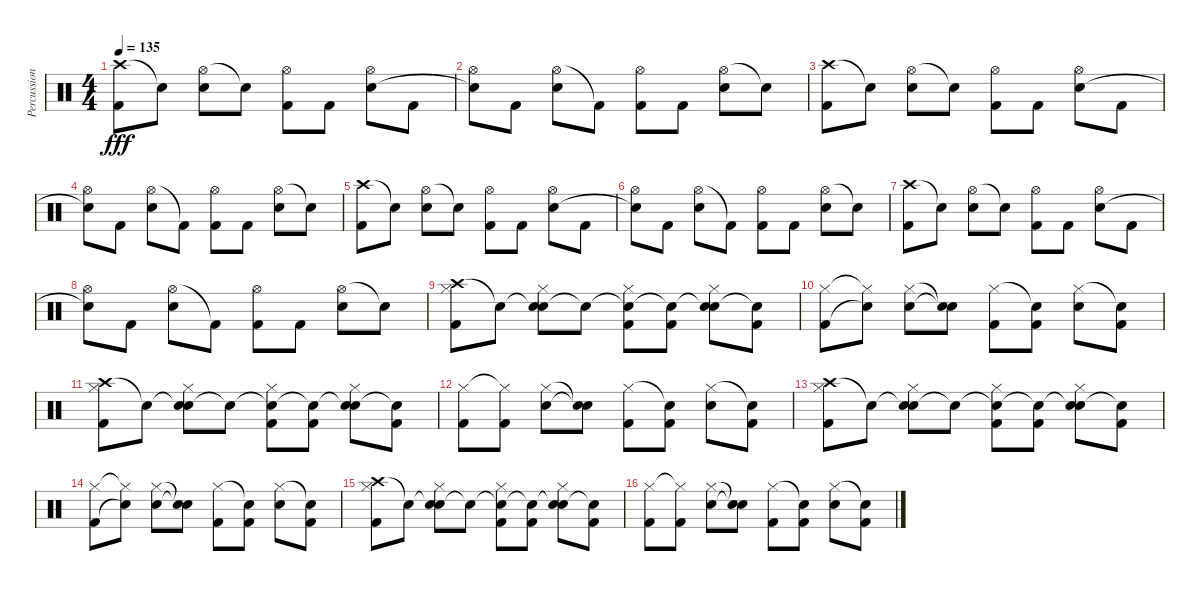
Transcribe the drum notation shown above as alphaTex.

\track ("Percussion" "Percussion") {instrument percussion}
\staff {score}
\articulation defaults
\ts (4 4)
\tempo 135
\clef neutral
\ks c
("Crash high (hit)" "Kick (hit) 2").8{dy fff} "Snare (hit)"{t}.8 ("Hi-Hat (open)" "Electric Snare (hit)").8 "Snare (hit)"{t}.8 ("Hi-Hat (open)" "Kick (hit) 2").8 "Kick (hit) 2".8 ("Hi-Hat (open)" "Electric Snare (hit)").8 "Kick (hit) 2".8 |
("Hi-Hat (open)" "Snare (hit)"{t}).8 "Kick (hit) 2".8 ("Hi-Hat (open)" "Electric Snare (hit)").8 "Kick (hit) 2"{t}.8 ("Hi-Hat (open)" "Kick (hit) 2").8 "Kick (hit) 2".8 ("Hi-Hat (open)" "Electric Snare (hit)").8 "Snare (hit)"{t}.8 |
("Crash high (hit)" "Kick (hit) 2").8 "Snare (hit)"{t}.8 ("Hi-Hat (open)" "Electric Snare (hit)").8 "Snare (hit)"{t}.8 ("Hi-Hat (open)" "Kick (hit) 2").8 "Kick (hit) 2".8 ("Hi-Hat (open)" "Electric Snare (hit)").8 "Kick (hit) 2".8 |
("Hi-Hat (open)" "Snare (hit)"{t}).8 "Kick (hit) 2".8 ("Hi-Hat (open)" "Electric Snare (hit)").8 "Kick (hit) 2"{t}.8 ("Hi-Hat (open)" "Kick (hit) 2").8 "Kick (hit) 2".8 ("Hi-Hat (open)" "Electric Snare (hit)").8 "Snare (hit)"{t}.8 |
("Crash high (hit)" "Kick (hit) 2").8 "Snare (hit)"{t}.8 ("Hi-Hat (open)" "Electric Snare (hit)").8 "Snare (hit)"{t}.8 ("Hi-Hat (open)" "Kick (hit) 2").8 "Kick (hit) 2".8 ("Hi-Hat (open)" "Electric Snare (hit)").8 "Kick (hit) 2".8 |
("Hi-Hat (open)" "Snare (hit)"{t}).8 "Kick (hit) 2".8 ("Hi-Hat (open)" "Electric Snare (hit)").8 "Kick (hit) 2"{t}.8 ("Hi-Hat (open)" "Kick (hit) 2").8 "Kick (hit) 2".8 ("Hi-Hat (open)" "Electric Snare (hit)").8 "Snare (hit)"{t}.8 |
("Crash high (hit)" "Kick (hit) 2").8 "Snare (hit)"{t}.8 ("Hi-Hat (open)" "Electric Snare (hit)").8 "Snare (hit)"{t}.8 ("Hi-Hat (open)" "Kick (hit) 2").8 "Kick (hit) 2".8 ("Hi-Hat (open)" "Electric Snare (hit)").8 "Kick (hit) 2".8 |
("Hi-Hat (open)" "Snare (hit)"{t}).8 "Kick (hit) 2".8 ("Hi-Hat (open)" "Electric Snare (hit)").8 "Kick (hit) 2"{t}.8 ("Hi-Hat (open)" "Kick (hit) 2").8 "Kick (hit) 2".8 ("Hi-Hat (open)" "Electric Snare (hit)").8 "Snare (hit)"{t}.8 |
("Crash high (hit)" "Kick (hit) 2" "Hi-Hat (closed)").8 "Snare (hit)"{t}.8 ("Snare (hit)"{t} "Electric Snare (hit)" "Hi-Hat (closed)").8 "Snare (hit)"{t}.8 ("Snare (hit)"{t} "Kick (hit) 2" "Hi-Hat (closed)").8 ("Snare (hit)"{t} "Kick (hit) 2").8 ("Snare (hit)"{t} "Electric Snare (hit)" "Hi-Hat (closed)").8 ("Snare (hit)"{t} "Kick (hit) 2").8 |
("Kick (hit) 2" "Hi-Hat (closed)").8 ("Snare (hit)"{t} "Hi-Hat (closed)"{t}).8 ("Electric Snare (hit)" "Hi-Hat (closed)").8 ("Snare (hit)"{t} "Snare (hit)"{t}).8 ("Kick (hit) 2" "Hi-Hat (closed)").8 ("Kick (hit) 2" "Snare (hit)"{t}).8 ("Electric Snare (hit)" "Hi-Hat (closed)").8 ("Kick (hit) 2" "Snare (hit)"{t}).8 |
("Crash high (hit)" "Kick (hit) 2" "Hi-Hat (closed)").8 "Snare (hit)"{t}.8 ("Snare (hit)"{t} "Electric Snare (hit)" "Hi-Hat (closed)").8 "Snare (hit)"{t}.8 ("Snare (hit)"{t} "Kick (hit) 2" "Hi-Hat (closed)").8 ("Snare (hit)"{t} "Kick (hit) 2").8 ("Snare (hit)"{t} "Electric Snare (hit)" "Hi-Hat (closed)").8 ("Snare (hit)"{t} "Kick (hit) 2").8 |
("Kick (hit) 2" "Hi-Hat (closed)").8 ("Kick (hit) 2" "Hi-Hat (closed)"{t}).8 ("Electric Snare (hit)" "Hi-Hat (closed)").8 ("Snare (hit)"{t} "Snare (hit)"{t}).8 ("Kick (hit) 2" "Hi-Hat (closed)").8 ("Kick (hit) 2" "Snare (hit)"{t}).8 ("Electric Snare (hit)" "Hi-Hat (closed)").8 ("Kick (hit) 2" "Snare (hit)"{t}).8 |
("Crash high (hit)" "Kick (hit) 2" "Hi-Hat (closed)").8 "Snare (hit)"{t}.8 ("Snare (hit)"{t} "Electric Snare (hit)" "Hi-Hat (closed)").8 "Snare (hit)"{t}.8 ("Snare (hit)"{t} "Kick (hit) 2" "Hi-Hat (closed)").8 ("Snare (hit)"{t} "Kick (hit) 2").8 ("Snare (hit)"{t} "Electric Snare (hit)" "Hi-Hat (closed)").8 ("Snare (hit)"{t} "Kick (hit) 2").8 |
("Kick (hit) 2" "Hi-Hat (closed)").8 ("Snare (hit)"{t} "Hi-Hat (closed)"{t}).8 ("Electric Snare (hit)" "Hi-Hat (closed)").8 ("Snare (hit)"{t} "Snare (hit)"{t}).8 ("Kick (hit) 2" "Hi-Hat (closed)").8 ("Kick (hit) 2" "Snare (hit)"{t}).8 ("Electric Snare (hit)" "Hi-Hat (closed)").8 ("Kick (hit) 2" "Snare (hit)"{t}).8 |
("Crash high (hit)" "Kick (hit) 2" "Hi-Hat (closed)").8 "Snare (hit)"{t}.8 ("Snare (hit)"{t} "Electric Snare (hit)" "Hi-Hat (closed)").8 "Snare (hit)"{t}.8 ("Snare (hit)"{t} "Kick (hit) 2" "Hi-Hat (closed)").8 ("Snare (hit)"{t} "Kick (hit) 2").8 ("Snare (hit)"{t} "Electric Snare (hit)" "Hi-Hat (closed)").8 ("Snare (hit)"{t} "Kick (hit) 2").8 |
("Kick (hit) 2" "Hi-Hat (closed)").8 ("Kick (hit) 2" "Hi-Hat (closed)"{t}).8 ("Electric Snare (hit)" "Hi-Hat (closed)").8 ("Snare (hit)"{t} "Snare (hit)"{t}).8 ("Kick (hit) 2" "Hi-Hat (closed)").8 ("Kick (hit) 2" "Snare (hit)"{t}).8 ("Electric Snare (hit)" "Hi-Hat (closed)").8 ("Kick (hit) 2" "Snare (hit)"{t}).8
